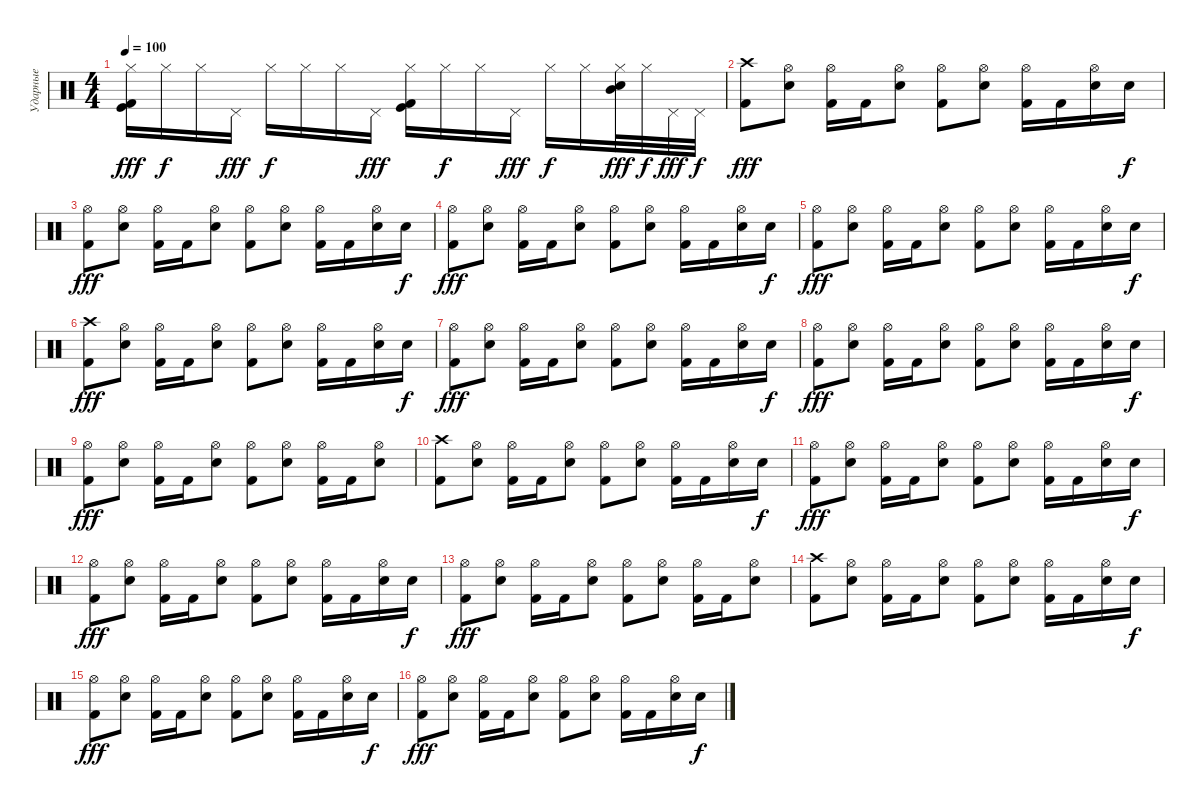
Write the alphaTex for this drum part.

\track ("Ударные" "Ударные") {instrument percussion}
\staff {score}
\articulation defaults
\ts (4 4)
\tempo 100
\clef neutral
\ks c
("Hi-Hat (closed)" "Kick (hit)" "Kick (hit) 2").16{dy fff} "Hi-Hat (closed)".16{dy f} "Hi-Hat (closed)".16 "Pedal Hi-Hat (hit)".16{dy fff} "Hi-Hat (closed)".16{dy f} "Hi-Hat (closed)".16 "Hi-Hat (closed)".16 "Pedal Hi-Hat (hit)".16{dy fff} ("Hi-Hat (closed)" "Kick (hit)" "Kick (hit) 2").16 "Hi-Hat (closed)".16{dy f} "Hi-Hat (closed)".16 "Pedal Hi-Hat (hit)".16{dy fff} "Hi-Hat (closed)".16{dy f} "Hi-Hat (closed)".16 ("Hi-Hat (closed)" "Snare (hit) 2" "Mid Tom (hit)").32{dy fff} "Hi-Hat (closed)".32{dy f} "Pedal Hi-Hat (hit)".32{dy fff} "Pedal Hi-Hat (hit)".32{dy f} |
("Crash high (hit)" "Kick (hit) 2").8{dy fff} ("Hi-Hat (open)" "Snare (hit) 2").8 ("Hi-Hat (open)" "Kick (hit) 2").16 "Kick (hit) 2".16 ("Hi-Hat (open)" "Snare (hit) 2").8 ("Hi-Hat (open)" "Kick (hit) 2").8 ("Hi-Hat (open)" "Snare (hit) 2").8 ("Hi-Hat (open)" "Kick (hit) 2").16 "Kick (hit) 2".16 ("Hi-Hat (open)" "Snare (hit) 2").16 "Snare (hit) 2".16{dy f} |
("Hi-Hat (open)" "Kick (hit) 2").8{dy fff} ("Hi-Hat (open)" "Snare (hit) 2").8 ("Hi-Hat (open)" "Kick (hit) 2").16 "Kick (hit) 2".16 ("Hi-Hat (open)" "Snare (hit) 2").8 ("Hi-Hat (open)" "Kick (hit) 2").8 ("Hi-Hat (open)" "Snare (hit) 2").8 ("Hi-Hat (open)" "Kick (hit) 2").16 "Kick (hit) 2".16 ("Hi-Hat (open)" "Snare (hit) 2").16 "Snare (hit) 2".16{dy f} |
("Hi-Hat (open)" "Kick (hit) 2").8{dy fff} ("Hi-Hat (open)" "Snare (hit) 2").8 ("Hi-Hat (open)" "Kick (hit) 2").16 "Kick (hit) 2".16 ("Hi-Hat (open)" "Snare (hit) 2").8 ("Hi-Hat (open)" "Kick (hit) 2").8 ("Hi-Hat (open)" "Snare (hit) 2").8 ("Hi-Hat (open)" "Kick (hit) 2").16 "Kick (hit) 2".16 ("Hi-Hat (open)" "Snare (hit) 2").16 "Snare (hit) 2".16{dy f} |
("Hi-Hat (open)" "Kick (hit) 2").8{dy fff} ("Hi-Hat (open)" "Snare (hit) 2").8 ("Hi-Hat (open)" "Kick (hit) 2").16 "Kick (hit) 2".16 ("Hi-Hat (open)" "Snare (hit) 2").8 ("Hi-Hat (open)" "Kick (hit) 2").8 ("Hi-Hat (open)" "Snare (hit) 2").8 ("Hi-Hat (open)" "Kick (hit) 2").16 "Kick (hit) 2".16 ("Hi-Hat (open)" "Snare (hit) 2").16 "Snare (hit) 2".16{dy f} |
("Crash high (hit)" "Kick (hit) 2").8{dy fff} ("Hi-Hat (open)" "Snare (hit) 2").8 ("Hi-Hat (open)" "Kick (hit) 2").16 "Kick (hit) 2".16 ("Hi-Hat (open)" "Snare (hit) 2").8 ("Hi-Hat (open)" "Kick (hit) 2").8 ("Hi-Hat (open)" "Snare (hit) 2").8 ("Hi-Hat (open)" "Kick (hit) 2").16 "Kick (hit) 2".16 ("Hi-Hat (open)" "Snare (hit) 2").16 "Snare (hit) 2".16{dy f} |
("Hi-Hat (open)" "Kick (hit) 2").8{dy fff} ("Hi-Hat (open)" "Snare (hit) 2").8 ("Hi-Hat (open)" "Kick (hit) 2").16 "Kick (hit) 2".16 ("Hi-Hat (open)" "Snare (hit) 2").8 ("Hi-Hat (open)" "Kick (hit) 2").8 ("Hi-Hat (open)" "Snare (hit) 2").8 ("Hi-Hat (open)" "Kick (hit) 2").16 "Kick (hit) 2".16 ("Hi-Hat (open)" "Snare (hit) 2").16 "Snare (hit) 2".16{dy f} |
("Hi-Hat (open)" "Kick (hit) 2").8{dy fff} ("Hi-Hat (open)" "Snare (hit) 2").8 ("Hi-Hat (open)" "Kick (hit) 2").16 "Kick (hit) 2".16 ("Hi-Hat (open)" "Snare (hit) 2").8 ("Hi-Hat (open)" "Kick (hit) 2").8 ("Hi-Hat (open)" "Snare (hit) 2").8 ("Hi-Hat (open)" "Kick (hit) 2").16 "Kick (hit) 2".16 ("Hi-Hat (open)" "Snare (hit) 2").16 "Snare (hit) 2".16{dy f} |
("Hi-Hat (open)" "Kick (hit) 2").8{dy fff} ("Hi-Hat (open)" "Snare (hit) 2").8 ("Hi-Hat (open)" "Kick (hit) 2").16 "Kick (hit) 2".16 ("Hi-Hat (open)" "Snare (hit) 2").8 ("Hi-Hat (open)" "Kick (hit) 2").8 ("Hi-Hat (open)" "Snare (hit) 2").8 ("Hi-Hat (open)" "Kick (hit) 2").16 "Kick (hit) 2".16 ("Hi-Hat (open)" "Snare (hit) 2").8 |
("Crash high (hit)" "Kick (hit) 2").8 ("Hi-Hat (open)" "Snare (hit) 2").8 ("Hi-Hat (open)" "Kick (hit) 2").16 "Kick (hit) 2".16 ("Hi-Hat (open)" "Snare (hit) 2").8 ("Hi-Hat (open)" "Kick (hit) 2").8 ("Hi-Hat (open)" "Snare (hit) 2").8 ("Hi-Hat (open)" "Kick (hit) 2").16 "Kick (hit) 2".16 ("Hi-Hat (open)" "Snare (hit) 2").16 "Snare (hit) 2".16{dy f} |
("Hi-Hat (open)" "Kick (hit) 2").8{dy fff} ("Hi-Hat (open)" "Snare (hit) 2").8 ("Hi-Hat (open)" "Kick (hit) 2").16 "Kick (hit) 2".16 ("Hi-Hat (open)" "Snare (hit) 2").8 ("Hi-Hat (open)" "Kick (hit) 2").8 ("Hi-Hat (open)" "Snare (hit) 2").8 ("Hi-Hat (open)" "Kick (hit) 2").16 "Kick (hit) 2".16 ("Hi-Hat (open)" "Snare (hit) 2").16 "Snare (hit) 2".16{dy f} |
("Hi-Hat (open)" "Kick (hit) 2").8{dy fff} ("Hi-Hat (open)" "Snare (hit) 2").8 ("Hi-Hat (open)" "Kick (hit) 2").16 "Kick (hit) 2".16 ("Hi-Hat (open)" "Snare (hit) 2").8 ("Hi-Hat (open)" "Kick (hit) 2").8 ("Hi-Hat (open)" "Snare (hit) 2").8 ("Hi-Hat (open)" "Kick (hit) 2").16 "Kick (hit) 2".16 ("Hi-Hat (open)" "Snare (hit) 2").16 "Snare (hit) 2".16{dy f} |
("Hi-Hat (open)" "Kick (hit) 2").8{dy fff} ("Hi-Hat (open)" "Snare (hit) 2").8 ("Hi-Hat (open)" "Kick (hit) 2").16 "Kick (hit) 2".16 ("Hi-Hat (open)" "Snare (hit) 2").8 ("Hi-Hat (open)" "Kick (hit) 2").8 ("Hi-Hat (open)" "Snare (hit) 2").8 ("Hi-Hat (open)" "Kick (hit) 2").16 "Kick (hit) 2".16 ("Hi-Hat (open)" "Snare (hit) 2").8 |
("Crash high (hit)" "Kick (hit) 2").8 ("Hi-Hat (open)" "Snare (hit) 2").8 ("Hi-Hat (open)" "Kick (hit) 2").16 "Kick (hit) 2".16 ("Hi-Hat (open)" "Snare (hit) 2").8 ("Hi-Hat (open)" "Kick (hit) 2").8 ("Hi-Hat (open)" "Snare (hit) 2").8 ("Hi-Hat (open)" "Kick (hit) 2").16 "Kick (hit) 2".16 ("Hi-Hat (open)" "Snare (hit) 2").16 "Snare (hit) 2".16{dy f} |
("Hi-Hat (open)" "Kick (hit) 2").8{dy fff} ("Hi-Hat (open)" "Snare (hit) 2").8 ("Hi-Hat (open)" "Kick (hit) 2").16 "Kick (hit) 2".16 ("Hi-Hat (open)" "Snare (hit) 2").8 ("Hi-Hat (open)" "Kick (hit) 2").8 ("Hi-Hat (open)" "Snare (hit) 2").8 ("Hi-Hat (open)" "Kick (hit) 2").16 "Kick (hit) 2".16 ("Hi-Hat (open)" "Snare (hit) 2").16 "Snare (hit) 2".16{dy f} |
("Hi-Hat (open)" "Kick (hit) 2").8{dy fff} ("Hi-Hat (open)" "Snare (hit) 2").8 ("Hi-Hat (open)" "Kick (hit) 2").16 "Kick (hit) 2".16 ("Hi-Hat (open)" "Snare (hit) 2").8 ("Hi-Hat (open)" "Kick (hit) 2").8 ("Hi-Hat (open)" "Snare (hit) 2").8 ("Hi-Hat (open)" "Kick (hit) 2").16 "Kick (hit) 2".16 ("Hi-Hat (open)" "Snare (hit) 2").16 "Snare (hit) 2".16{dy f}
